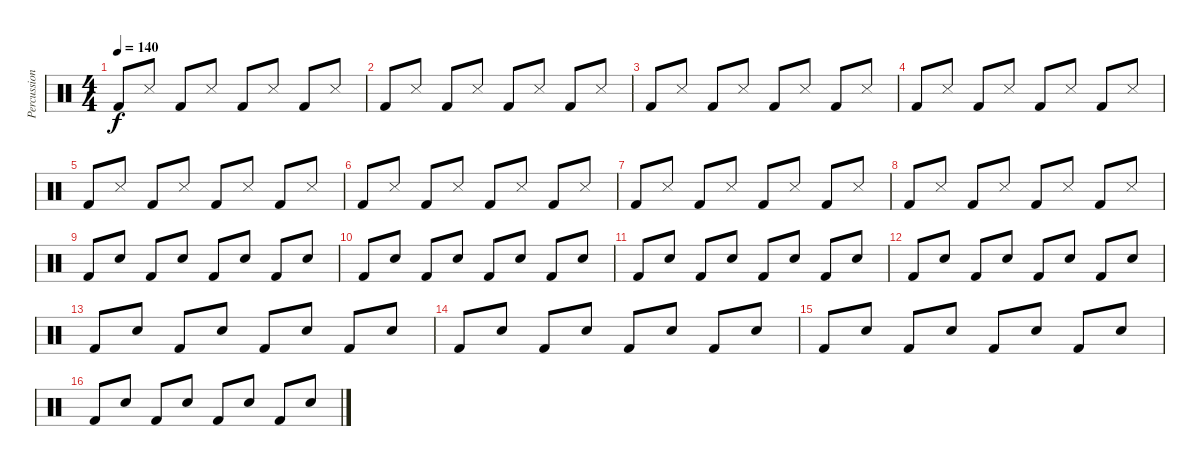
\track ("Percussion" "Percussion") {instrument percussion}
\staff {score}
\articulation defaults
\ts (4 4)
\tempo 140
\clef neutral
\ks c "Kick (hit) 2".8{dy f} "Snare (side stick) 3".8 "Kick (hit) 2".8 "Snare (side stick) 3".8 "Kick (hit) 2".8 "Snare (side stick) 3".8 "Kick (hit) 2".8 "Snare (side stick) 3".8
|
"Kick (hit) 2".8 "Snare (side stick) 3".8 "Kick (hit) 2".8 "Snare (side stick) 3".8 "Kick (hit) 2".8 "Snare (side stick) 3".8 "Kick (hit) 2".8 "Snare (side stick) 3".8 |
"Kick (hit) 2".8 "Snare (side stick) 3".8 "Kick (hit) 2".8 "Snare (side stick) 3".8 "Kick (hit) 2".8 "Snare (side stick) 3".8 "Kick (hit) 2".8 "Snare (side stick) 3".8 |
"Kick (hit) 2".8 "Snare (side stick) 3".8 "Kick (hit) 2".8 "Snare (side stick) 3".8 "Kick (hit) 2".8 "Snare (side stick) 3".8 "Kick (hit) 2".8 "Snare (side stick) 3".8 |
"Kick (hit) 2".8 "Snare (side stick) 3".8 "Kick (hit) 2".8 "Snare (side stick) 3".8 "Kick (hit) 2".8 "Snare (side stick) 3".8 "Kick (hit) 2".8 "Snare (side stick) 3".8 |
"Kick (hit) 2".8 "Snare (side stick) 3".8 "Kick (hit) 2".8 "Snare (side stick) 3".8 "Kick (hit) 2".8 "Snare (side stick) 3".8 "Kick (hit) 2".8 "Snare (side stick) 3".8 |
"Kick (hit) 2".8 "Snare (side stick) 3".8 "Kick (hit) 2".8 "Snare (side stick) 3".8 "Kick (hit) 2".8 "Snare (side stick) 3".8 "Kick (hit) 2".8 "Snare (side stick) 3".8 |
"Kick (hit) 2".8 "Snare (side stick) 3".8 "Kick (hit) 2".8 "Snare (side stick) 3".8 "Kick (hit) 2".8 "Snare (side stick) 3".8 "Kick (hit) 2".8 "Snare (side stick) 3".8 |
"Kick (hit) 2".8 "Electric Snare (hit)".8 "Kick (hit) 2".8 "Electric Snare (hit)".8 "Kick (hit) 2".8 "Electric Snare (hit)".8 "Kick (hit) 2".8 "Electric Snare (hit)".8 |
"Kick (hit) 2".8 "Electric Snare (hit)".8 "Kick (hit) 2".8 "Electric Snare (hit)".8 "Kick (hit) 2".8 "Electric Snare (hit)".8 "Kick (hit) 2".8 "Electric Snare (hit)".8 |
"Kick (hit) 2".8 "Electric Snare (hit)".8 "Kick (hit) 2".8 "Electric Snare (hit)".8 "Kick (hit) 2".8 "Electric Snare (hit)".8 "Kick (hit) 2".8 "Electric Snare (hit)".8 |
"Kick (hit) 2".8 "Electric Snare (hit)".8 "Kick (hit) 2".8 "Electric Snare (hit)".8 "Kick (hit) 2".8 "Electric Snare (hit)".8 "Kick (hit) 2".8 "Electric Snare (hit)".8 |
"Kick (hit) 2".8 "Electric Snare (hit)".8 "Kick (hit) 2".8 "Electric Snare (hit)".8 "Kick (hit) 2".8 "Electric Snare (hit)".8 "Kick (hit) 2".8 "Electric Snare (hit)".8 |
"Kick (hit) 2".8 "Electric Snare (hit)".8 "Kick (hit) 2".8 "Electric Snare (hit)".8 "Kick (hit) 2".8 "Electric Snare (hit)".8 "Kick (hit) 2".8 "Electric Snare (hit)".8 |
"Kick (hit) 2".8 "Electric Snare (hit)".8 "Kick (hit) 2".8 "Electric Snare (hit)".8 "Kick (hit) 2".8 "Electric Snare (hit)".8 "Kick (hit) 2".8 "Electric Snare (hit)".8 |
"Kick (hit) 2".8 "Electric Snare (hit)".8 "Kick (hit) 2".8 "Electric Snare (hit)".8 "Kick (hit) 2".8 "Electric Snare (hit)".8 "Kick (hit) 2".8 "Electric Snare (hit)".8
